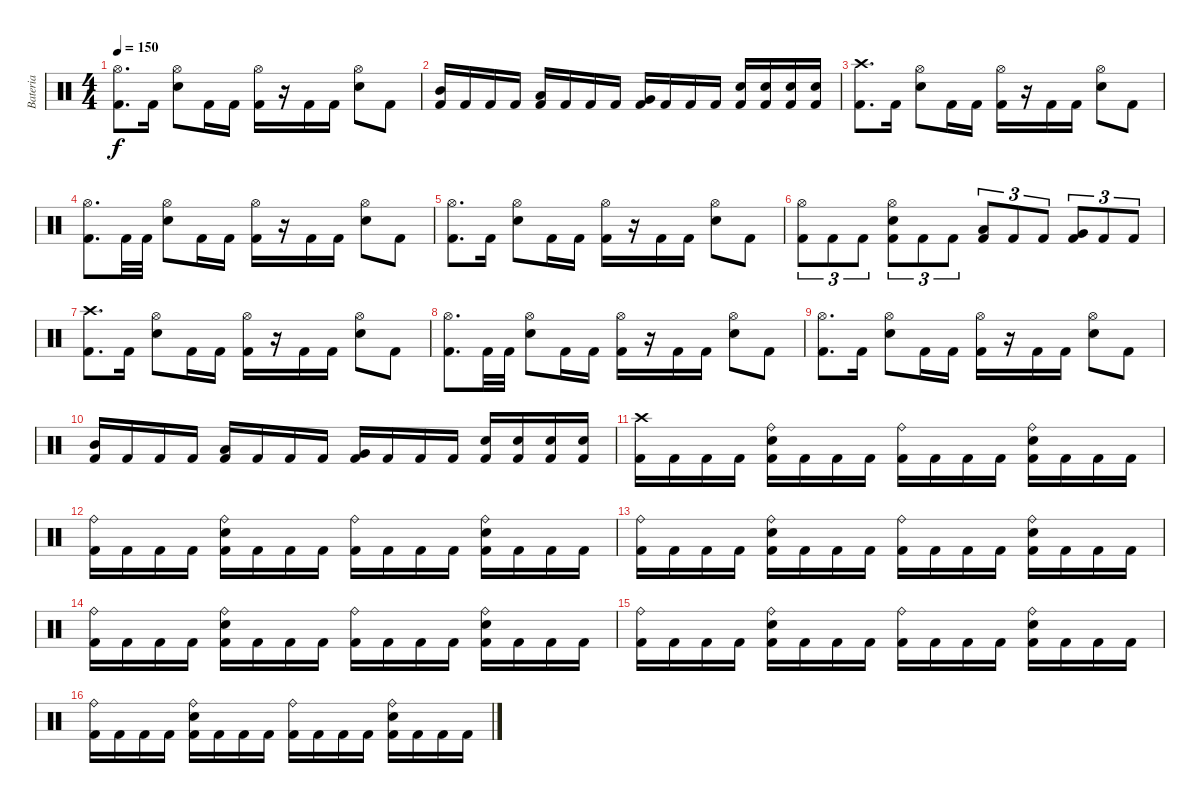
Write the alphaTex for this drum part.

\track ("Bateria" "Bateria") {instrument percussion}
\staff {score}
\articulation defaults
\ts (4 4)
\tempo 150
\clef neutral
\ks c
("Hi-Hat (open)" "Kick (hit) 2").8{d dy f} "Kick (hit) 2".16 ("Hi-Hat (open)" "Snare (hit) 2").8 "Kick (hit) 2".16 "Kick (hit) 2".16 ("Hi-Hat (open)" "Kick (hit) 2").16 r.16 "Kick (hit) 2".16 "Kick (hit) 2".16 ("Hi-Hat (open)" "Snare (hit) 2").8 "Kick (hit) 2".8 |
("Mid Tom (hit)" "Kick (hit) 2").16 "Kick (hit) 2".16 "Kick (hit) 2".16 "Kick (hit) 2".16 ("Low Tom (hit)" "Kick (hit) 2").16 "Kick (hit) 2".16 "Kick (hit) 2".16 "Kick (hit) 2".16 ("Very Low Tom (hit)" "Kick (hit) 2").16 "Kick (hit) 2".16 "Kick (hit) 2".16 "Kick (hit) 2".16 ("Snare (hit) 2" "Kick (hit) 2").16 ("Snare (hit) 2" "Kick (hit) 2").16 ("Snare (hit) 2" "Kick (hit) 2").16 ("Snare (hit) 2" "Kick (hit) 2").16 |
("Crash high (hit)" "Kick (hit) 2").8{d} "Kick (hit) 2".16 ("Hi-Hat (open)" "Snare (hit) 2").8 "Kick (hit) 2".16 "Kick (hit) 2".16 ("Hi-Hat (open)" "Kick (hit) 2").16 r.16 "Kick (hit) 2".16 "Kick (hit) 2".16 ("Hi-Hat (open)" "Snare (hit) 2").8 "Kick (hit) 2".8 |
("Hi-Hat (open)" "Kick (hit) 2").8{d} "Kick (hit) 2".32 "Kick (hit) 2".32 ("Hi-Hat (open)" "Snare (hit) 2").8 "Kick (hit) 2".16 "Kick (hit) 2".16 ("Hi-Hat (open)" "Kick (hit) 2").16 r.16 "Kick (hit) 2".16 "Kick (hit) 2".16 ("Hi-Hat (open)" "Snare (hit) 2").8 "Kick (hit) 2".8 |
("Hi-Hat (open)" "Kick (hit) 2").8{d} "Kick (hit) 2".16 ("Hi-Hat (open)" "Snare (hit) 2").8 "Kick (hit) 2".16 "Kick (hit) 2".16 ("Hi-Hat (open)" "Kick (hit) 2").16 r.16 "Kick (hit) 2".16 "Kick (hit) 2".16 ("Hi-Hat (open)" "Snare (hit) 2").8 "Kick (hit) 2".8 |
("Hi-Hat (open)" "Kick (hit) 2").8{tu (3 2)} "Kick (hit) 2".8{tu (3 2)} "Kick (hit) 2".8{tu (3 2)} ("Hi-Hat (open)" "Snare (hit) 2" "Kick (hit) 2").8{tu (3 2)} "Kick (hit) 2".8{tu (3 2)} "Kick (hit) 2".8{tu (3 2)} ("Low Tom (hit)" "Kick (hit) 2").8{tu (3 2)} "Kick (hit) 2".8{tu (3 2)} "Kick (hit) 2".8{tu (3 2)} ("Very Low Tom (hit)" "Kick (hit) 2").8{tu (3 2)} "Kick (hit) 2".8{tu (3 2)} "Kick (hit) 2".8{tu (3 2)} |
("Crash high (hit)" "Kick (hit) 2").8{d} "Kick (hit) 2".16 ("Hi-Hat (open)" "Snare (hit) 2").8 "Kick (hit) 2".16 "Kick (hit) 2".16 ("Hi-Hat (open)" "Kick (hit) 2").16 r.16 "Kick (hit) 2".16 "Kick (hit) 2".16 ("Hi-Hat (open)" "Snare (hit) 2").8 "Kick (hit) 2".8 |
("Hi-Hat (open)" "Kick (hit) 2").8{d} "Kick (hit) 2".32 "Kick (hit) 2".32 ("Hi-Hat (open)" "Snare (hit) 2").8 "Kick (hit) 2".16 "Kick (hit) 2".16 ("Hi-Hat (open)" "Kick (hit) 2").16 r.16 "Kick (hit) 2".16 "Kick (hit) 2".16 ("Hi-Hat (open)" "Snare (hit) 2").8 "Kick (hit) 2".8 |
("Hi-Hat (open)" "Kick (hit) 2").8{d} "Kick (hit) 2".16 ("Hi-Hat (open)" "Snare (hit) 2").8 "Kick (hit) 2".16 "Kick (hit) 2".16 ("Hi-Hat (open)" "Kick (hit) 2").16 r.16 "Kick (hit) 2".16 "Kick (hit) 2".16 ("Hi-Hat (open)" "Snare (hit) 2").8 "Kick (hit) 2".8 |
("Mid Tom (hit)" "Kick (hit) 2").16 "Kick (hit) 2".16 "Kick (hit) 2".16 "Kick (hit) 2".16 ("Low Tom (hit)" "Kick (hit) 2").16 "Kick (hit) 2".16 "Kick (hit) 2".16 "Kick (hit) 2".16 ("Very Low Tom (hit)" "Kick (hit) 2").16 "Kick (hit) 2".16 "Kick (hit) 2".16 "Kick (hit) 2".16 ("Snare (hit) 2" "Kick (hit) 2").16 ("Snare (hit) 2" "Kick (hit) 2").16 ("Snare (hit) 2" "Kick (hit) 2").16 ("Snare (hit) 2" "Kick (hit) 2").16 |
("Crash high (hit)" "Kick (hit) 2").16 "Kick (hit) 2".16 "Kick (hit) 2".16 "Kick (hit) 2".16 ("Ride (bell)" "Snare (hit) 2" "Kick (hit) 2").16 "Kick (hit) 2".16 "Kick (hit) 2".16 "Kick (hit) 2".16 ("Ride (bell)" "Kick (hit) 2").16 "Kick (hit) 2".16 "Kick (hit) 2".16 "Kick (hit) 2".16 ("Ride (bell)" "Snare (hit) 2" "Kick (hit) 2").16 "Kick (hit) 2".16 "Kick (hit) 2".16 "Kick (hit) 2".16 |
("Ride (bell)" "Kick (hit) 2").16 "Kick (hit) 2".16 "Kick (hit) 2".16 "Kick (hit) 2".16 ("Ride (bell)" "Snare (hit) 2" "Kick (hit) 2").16 "Kick (hit) 2".16 "Kick (hit) 2".16 "Kick (hit) 2".16 ("Ride (bell)" "Kick (hit) 2").16 "Kick (hit) 2".16 "Kick (hit) 2".16 "Kick (hit) 2".16 ("Ride (bell)" "Snare (hit) 2" "Kick (hit) 2").16 "Kick (hit) 2".16 "Kick (hit) 2".16 "Kick (hit) 2".16 |
("Ride (bell)" "Kick (hit) 2").16 "Kick (hit) 2".16 "Kick (hit) 2".16 "Kick (hit) 2".16 ("Ride (bell)" "Snare (hit) 2" "Kick (hit) 2").16 "Kick (hit) 2".16 "Kick (hit) 2".16 "Kick (hit) 2".16 ("Ride (bell)" "Kick (hit) 2").16 "Kick (hit) 2".16 "Kick (hit) 2".16 "Kick (hit) 2".16 ("Ride (bell)" "Snare (hit) 2" "Kick (hit) 2").16 "Kick (hit) 2".16 "Kick (hit) 2".16 "Kick (hit) 2".16 |
("Ride (bell)" "Kick (hit) 2").16 "Kick (hit) 2".16 "Kick (hit) 2".16 "Kick (hit) 2".16 ("Ride (bell)" "Snare (hit) 2" "Kick (hit) 2").16 "Kick (hit) 2".16 "Kick (hit) 2".16 "Kick (hit) 2".16 ("Ride (bell)" "Kick (hit) 2").16 "Kick (hit) 2".16 "Kick (hit) 2".16 "Kick (hit) 2".16 ("Ride (bell)" "Snare (hit) 2" "Kick (hit) 2").16 "Kick (hit) 2".16 "Kick (hit) 2".16 "Kick (hit) 2".16 |
("Ride (bell)" "Kick (hit) 2").16 "Kick (hit) 2".16 "Kick (hit) 2".16 "Kick (hit) 2".16 ("Ride (bell)" "Snare (hit) 2" "Kick (hit) 2").16 "Kick (hit) 2".16 "Kick (hit) 2".16 "Kick (hit) 2".16 ("Ride (bell)" "Kick (hit) 2").16 "Kick (hit) 2".16 "Kick (hit) 2".16 "Kick (hit) 2".16 ("Ride (bell)" "Snare (hit) 2" "Kick (hit) 2").16 "Kick (hit) 2".16 "Kick (hit) 2".16 "Kick (hit) 2".16 |
("Ride (bell)" "Kick (hit) 2").16 "Kick (hit) 2".16 "Kick (hit) 2".16 "Kick (hit) 2".16 ("Ride (bell)" "Snare (hit) 2" "Kick (hit) 2").16 "Kick (hit) 2".16 "Kick (hit) 2".16 "Kick (hit) 2".16 ("Ride (bell)" "Kick (hit) 2").16 "Kick (hit) 2".16 "Kick (hit) 2".16 "Kick (hit) 2".16 ("Ride (bell)" "Snare (hit) 2" "Kick (hit) 2").16 "Kick (hit) 2".16 "Kick (hit) 2".16 "Kick (hit) 2".16
